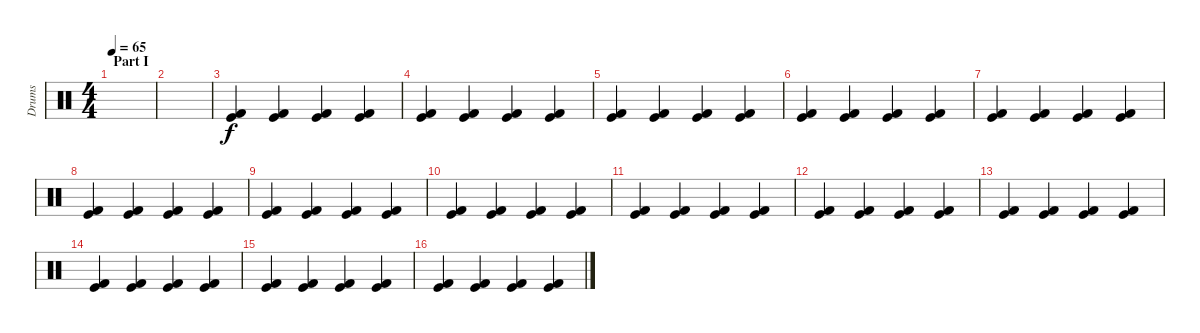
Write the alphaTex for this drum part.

\track ("Drums" "Drums") {instrument percussion}
\staff {score}
\articulation defaults
\ts (4 4)
\section ("" "Part I")
\tempo 65
\clef neutral
\ks c
|
|
("Kick (hit)" "Kick (hit) 2").4 ("Kick (hit)" "Kick (hit) 2").4 ("Kick (hit)" "Kick (hit) 2").4 ("Kick (hit)" "Kick (hit) 2").4 |
("Kick (hit)" "Kick (hit) 2").4 ("Kick (hit)" "Kick (hit) 2").4 ("Kick (hit)" "Kick (hit) 2").4 ("Kick (hit)" "Kick (hit) 2").4 |
("Kick (hit)" "Kick (hit) 2").4 ("Kick (hit)" "Kick (hit) 2").4 ("Kick (hit)" "Kick (hit) 2").4 ("Kick (hit)" "Kick (hit) 2").4 |
("Kick (hit)" "Kick (hit) 2").4 ("Kick (hit)" "Kick (hit) 2").4 ("Kick (hit)" "Kick (hit) 2").4 ("Kick (hit)" "Kick (hit) 2").4 |
("Kick (hit)" "Kick (hit) 2").4 ("Kick (hit)" "Kick (hit) 2").4 ("Kick (hit)" "Kick (hit) 2").4 ("Kick (hit)" "Kick (hit) 2").4 |
("Kick (hit)" "Kick (hit) 2").4 ("Kick (hit)" "Kick (hit) 2").4 ("Kick (hit)" "Kick (hit) 2").4 ("Kick (hit)" "Kick (hit) 2").4 |
("Kick (hit)" "Kick (hit) 2").4 ("Kick (hit)" "Kick (hit) 2").4 ("Kick (hit)" "Kick (hit) 2").4 ("Kick (hit)" "Kick (hit) 2").4 |
("Kick (hit)" "Kick (hit) 2").4 ("Kick (hit)" "Kick (hit) 2").4 ("Kick (hit)" "Kick (hit) 2").4 ("Kick (hit)" "Kick (hit) 2").4 |
("Kick (hit)" "Kick (hit) 2").4 ("Kick (hit)" "Kick (hit) 2").4 ("Kick (hit)" "Kick (hit) 2").4 ("Kick (hit)" "Kick (hit) 2").4 |
("Kick (hit)" "Kick (hit) 2").4 ("Kick (hit)" "Kick (hit) 2").4 ("Kick (hit)" "Kick (hit) 2").4 ("Kick (hit)" "Kick (hit) 2").4 |
("Kick (hit)" "Kick (hit) 2").4 ("Kick (hit)" "Kick (hit) 2").4 ("Kick (hit)" "Kick (hit) 2").4 ("Kick (hit)" "Kick (hit) 2").4 |
("Kick (hit)" "Kick (hit) 2").4 ("Kick (hit)" "Kick (hit) 2").4 ("Kick (hit)" "Kick (hit) 2").4 ("Kick (hit)" "Kick (hit) 2").4 |
("Kick (hit)" "Kick (hit) 2").4 ("Kick (hit)" "Kick (hit) 2").4 ("Kick (hit)" "Kick (hit) 2").4 ("Kick (hit)" "Kick (hit) 2").4 |
("Kick (hit)" "Kick (hit) 2").4 ("Kick (hit)" "Kick (hit) 2").4 ("Kick (hit)" "Kick (hit) 2").4 ("Kick (hit)" "Kick (hit) 2").4
